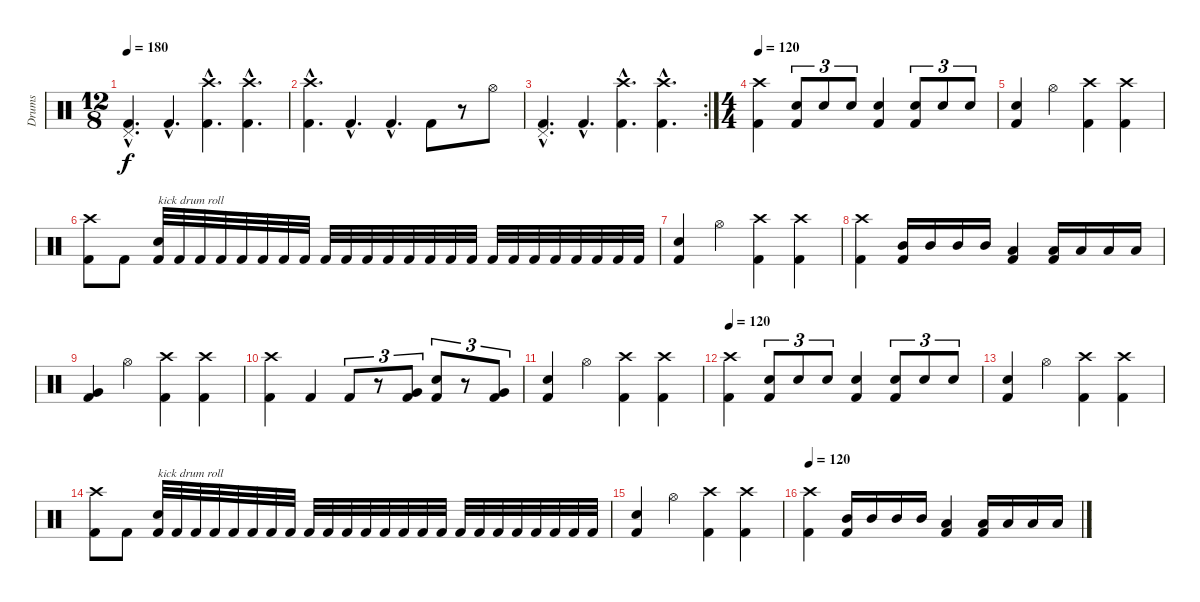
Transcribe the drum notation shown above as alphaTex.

\track ("Drums" "Drums") {instrument percussion}
\staff {score}
\articulation defaults
\ts (12 8)
\tempo 180
\clef neutral
\ks c
("Pedal Hi-Hat (hit)"{hac} "Kick (hit) 2"{hac}).4{d dy f} "Kick (hit) 2"{hac}.4{d} ("Crash high (hit)"{hac} "Kick (hit) 2"{hac}).4{d} ("Crash high (hit)"{hac} "Kick (hit) 2"{hac}).4{d} |
("Crash high (hit)"{hac} "Kick (hit) 2"{hac}).4{d} "Kick (hit) 2"{hac}.4{d} "Kick (hit) 2"{hac}.4{d} "Kick (hit) 2".8 r.8 "Hi-Hat (open)".8 |
\rc 2
("Pedal Hi-Hat (hit)"{hac} "Kick (hit) 2"{hac}).4{d} "Kick (hit) 2"{hac}.4{d} ("Crash high (hit)"{hac} "Kick (hit) 2"{hac}).4{d} ("Crash high (hit)"{hac} "Kick (hit) 2"{hac}).4{d} |
\ts (4 4)
\tempo 120
("Crash high (hit)" "Kick (hit) 2").4 ("Snare (hit) 2" "Kick (hit) 2").8{tu (3 2)} "Snare (hit) 2".8{tu (3 2)} "Snare (hit) 2".8{tu (3 2)} ("Snare (hit) 2" "Kick (hit) 2").4 ("Snare (hit) 2" "Kick (hit) 2").8{tu (3 2)} "Snare (hit) 2".8{tu (3 2)} "Snare (hit) 2".8{tu (3 2)} |
("Snare (hit) 2" "Kick (hit) 2").4 "Hi-Hat (open)".4 ("Crash high (hit)" "Kick (hit) 2").4 ("Crash high (hit)" "Kick (hit) 2").4 |
("Crash high (hit)" "Kick (hit) 2").8 "Kick (hit) 2".8 ("Snare (hit) 2" "Kick (hit) 2").32{txt "kick drum roll"} "Kick (hit) 2".32 "Kick (hit) 2".32 "Kick (hit) 2".32 "Kick (hit) 2".32 "Kick (hit) 2".32 "Kick (hit) 2".32 "Kick (hit) 2".32 "Kick (hit) 2".32 "Kick (hit) 2".32 "Kick (hit) 2".32 "Kick (hit) 2".32 "Kick (hit) 2".32 "Kick (hit) 2".32 "Kick (hit) 2".32 "Kick (hit) 2".32 "Kick (hit) 2".32 "Kick (hit) 2".32 "Kick (hit) 2".32 "Kick (hit) 2".32 "Kick (hit) 2".32 "Kick (hit) 2".32 "Kick (hit) 2".32 "Kick (hit) 2".32 |
("Snare (hit) 2" "Kick (hit) 2").4 "Hi-Hat (open)".4 ("Crash high (hit)" "Kick (hit) 2").4 ("Crash high (hit)" "Kick (hit) 2").4 |
("Crash high (hit)" "Kick (hit) 2").4 ("Mid Tom (hit)" "Kick (hit) 2").16 "Mid Tom (hit)".16 "Mid Tom (hit)".16 "Mid Tom (hit)".16 ("Low Tom (hit)" "Kick (hit) 2").4 ("Low Tom (hit)" "Kick (hit) 2").16 "Low Tom (hit)".16 "Low Tom (hit)".16 "Low Tom (hit)".16 |
("Very Low Tom (hit)" "Kick (hit) 2").4 "Hi-Hat (open)".4 ("Crash high (hit)" "Kick (hit) 2").4 ("Crash high (hit)" "Kick (hit) 2").4 |
("Crash high (hit)" "Kick (hit) 2").4 "Kick (hit) 2".4 "Kick (hit) 2".8{tu (3 2)} r.8{tu (3 2)} ("Very Low Tom (hit)" "Kick (hit) 2").8{tu (3 2)} ("Snare (hit) 2" "Kick (hit) 2").8{tu (3 2)} r.8{tu (3 2)} ("Very Low Tom (hit)" "Kick (hit) 2").8{tu (3 2)} |
("Snare (hit) 2" "Kick (hit) 2").4 "Hi-Hat (open)".4 ("Crash high (hit)" "Kick (hit) 2").4 ("Crash high (hit)" "Kick (hit) 2").4 |
\tempo 120
("Crash high (hit)" "Kick (hit) 2").4 ("Snare (hit) 2" "Kick (hit) 2").8{tu (3 2)} "Snare (hit) 2".8{tu (3 2)} "Snare (hit) 2".8{tu (3 2)} ("Snare (hit) 2" "Kick (hit) 2").4 ("Snare (hit) 2" "Kick (hit) 2").8{tu (3 2)} "Snare (hit) 2".8{tu (3 2)} "Snare (hit) 2".8{tu (3 2)} |
("Snare (hit) 2" "Kick (hit) 2").4 "Hi-Hat (open)".4 ("Crash high (hit)" "Kick (hit) 2").4 ("Crash high (hit)" "Kick (hit) 2").4 |
("Crash high (hit)" "Kick (hit) 2").8 "Kick (hit) 2".8 ("Snare (hit) 2" "Kick (hit) 2").32{txt "kick drum roll"} "Kick (hit) 2".32 "Kick (hit) 2".32 "Kick (hit) 2".32 "Kick (hit) 2".32 "Kick (hit) 2".32 "Kick (hit) 2".32 "Kick (hit) 2".32 "Kick (hit) 2".32 "Kick (hit) 2".32 "Kick (hit) 2".32 "Kick (hit) 2".32 "Kick (hit) 2".32 "Kick (hit) 2".32 "Kick (hit) 2".32 "Kick (hit) 2".32 "Kick (hit) 2".32 "Kick (hit) 2".32 "Kick (hit) 2".32 "Kick (hit) 2".32 "Kick (hit) 2".32 "Kick (hit) 2".32 "Kick (hit) 2".32 "Kick (hit) 2".32 |
("Snare (hit) 2" "Kick (hit) 2").4 "Hi-Hat (open)".4 ("Crash high (hit)" "Kick (hit) 2").4 ("Crash high (hit)" "Kick (hit) 2").4 |
\tempo 120
("Crash high (hit)" "Kick (hit) 2").4 ("Mid Tom (hit)" "Kick (hit) 2").16 "Mid Tom (hit)".16 "Mid Tom (hit)".16 "Mid Tom (hit)".16 ("Low Tom (hit)" "Kick (hit) 2").4 ("Low Tom (hit)" "Kick (hit) 2").16 "Low Tom (hit)".16 "Low Tom (hit)".16 "Low Tom (hit)".16
